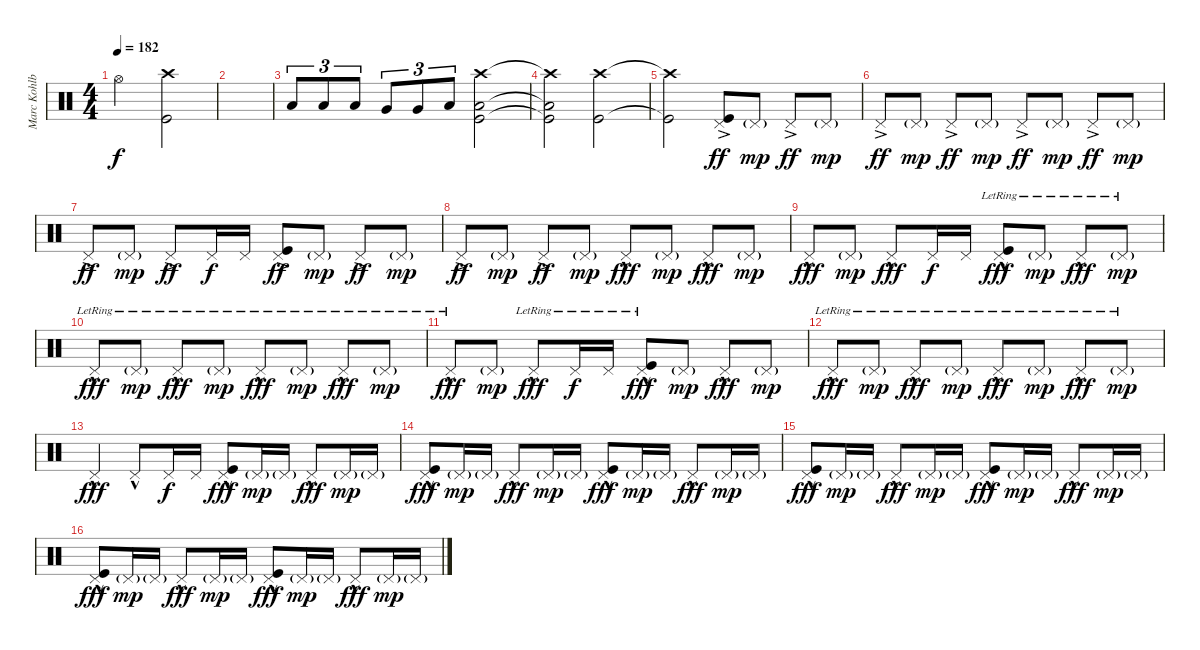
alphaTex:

\track ("Marc Kohlbry" "Marc Kohlb") {instrument percussion}
\staff {score}
\articulation defaults
\ts (4 4)
\tempo 182
\clef neutral
\ks c "Hi-Hat (open)".2{dy f}
("Crash high (hit)" "Kick (hit)").2 |
|
"Low Tom (hit)".8{tu (3 2)} "Low Tom (hit)".8{tu (3 2)} "Low Tom (hit)".8{tu (3 2)} "Very Low Tom (hit)".8{tu (3 2)} "Very Low Tom (hit)".8{tu (3 2)} "Low Floor Tom (hit)".8{tu (3 2)} ("Crash high (hit)" "Low Floor Tom (hit)" "Kick (hit)").2 |
("Crash high (hit)"{t} "Low Floor Tom (hit)"{t} "Kick (hit)"{t}).2 ("Crash high (hit)" "Kick (hit)").2 |
("Crash high (hit)"{t} "Kick (hit)"{t}).2 ("Pedal Hi-Hat (hit)"{ac} "Kick (hit)").8{dy ff} "Pedal Hi-Hat (hit)"{g}.8{dy mp} "Pedal Hi-Hat (hit)"{ac}.8{dy ff} "Pedal Hi-Hat (hit)"{g}.8{dy mp} |
"Pedal Hi-Hat (hit)"{ac}.8{dy ff} "Pedal Hi-Hat (hit)"{g}.8{dy mp} "Pedal Hi-Hat (hit)"{ac}.8{dy ff} "Pedal Hi-Hat (hit)"{g}.8{dy mp} "Pedal Hi-Hat (hit)"{ac}.8{dy ff} "Pedal Hi-Hat (hit)"{g}.8{dy mp} "Pedal Hi-Hat (hit)"{ac}.8{dy ff} "Pedal Hi-Hat (hit)"{g}.8{dy mp} |
"Pedal Hi-Hat (hit)"{ac}.8{dy ff} "Pedal Hi-Hat (hit)"{g}.8{dy mp} "Pedal Hi-Hat (hit)"{ac}.8{dy ff} "Pedal Hi-Hat (hit)".16{dy f} "Pedal Hi-Hat (hit)".16 ("Pedal Hi-Hat (hit)"{ac} "Kick (hit)").8{dy ff} "Pedal Hi-Hat (hit)"{g}.8{dy mp} "Pedal Hi-Hat (hit)"{ac}.8{dy ff} "Pedal Hi-Hat (hit)"{g}.8{dy mp} |
"Pedal Hi-Hat (hit)"{ac}.8{dy ff} "Pedal Hi-Hat (hit)"{g}.8{dy mp} "Pedal Hi-Hat (hit)"{ac}.8{dy ff} "Pedal Hi-Hat (hit)"{g}.8{dy mp} "Pedal Hi-Hat (hit)"{hac}.8{dy fff} "Pedal Hi-Hat (hit)"{g}.8{dy mp} "Pedal Hi-Hat (hit)"{hac}.8{dy fff} "Pedal Hi-Hat (hit)"{g}.8{dy mp} |
"Pedal Hi-Hat (hit)"{hac}.8{dy fff} "Pedal Hi-Hat (hit)"{g}.8{dy mp} "Pedal Hi-Hat (hit)"{hac}.8{dy fff} "Pedal Hi-Hat (hit)".16{dy f} "Pedal Hi-Hat (hit)".16 ("Pedal Hi-Hat (hit)"{hac lr} "Kick (hit)"{lr}).8{dy fff} "Pedal Hi-Hat (hit)"{g lr}.8{dy mp} "Pedal Hi-Hat (hit)"{hac lr}.8{dy fff} "Pedal Hi-Hat (hit)"{g lr}.8{dy mp} |
"Pedal Hi-Hat (hit)"{hac lr}.8{dy fff} "Pedal Hi-Hat (hit)"{g lr}.8{dy mp} "Pedal Hi-Hat (hit)"{hac lr}.8{dy fff} "Pedal Hi-Hat (hit)"{g lr}.8{dy mp} "Pedal Hi-Hat (hit)"{hac lr}.8{dy fff} "Pedal Hi-Hat (hit)"{g lr}.8{dy mp} "Pedal Hi-Hat (hit)"{hac lr}.8{dy fff} "Pedal Hi-Hat (hit)"{g lr}.8{dy mp} |
"Pedal Hi-Hat (hit)"{hac lr}.8{dy fff} "Pedal Hi-Hat (hit)"{g}.8{dy mp} "Pedal Hi-Hat (hit)"{hac lr}.8{dy fff} "Pedal Hi-Hat (hit)"{lr}.16{dy f} "Pedal Hi-Hat (hit)"{lr}.16 ("Pedal Hi-Hat (hit)"{hac lr} "Kick (hit)"{lr}).8{dy fff} "Pedal Hi-Hat (hit)"{g}.8{dy mp} "Pedal Hi-Hat (hit)"{hac}.8{dy fff} "Pedal Hi-Hat (hit)"{g}.8{dy mp} |
"Pedal Hi-Hat (hit)"{hac lr}.8{dy fff} "Pedal Hi-Hat (hit)"{g lr}.8{dy mp} "Pedal Hi-Hat (hit)"{hac lr}.8{dy fff} "Pedal Hi-Hat (hit)"{g lr}.8{dy mp} "Pedal Hi-Hat (hit)"{hac lr}.8{dy fff} "Pedal Hi-Hat (hit)"{g lr}.8{dy mp} "Pedal Hi-Hat (hit)"{hac lr}.8{dy fff} "Pedal Hi-Hat (hit)"{g lr}.8{dy mp} |
"Pedal Hi-Hat (hit)"{hac}.4{dy fff} "Pedal Hi-Hat (hit)"{hac}.8 "Pedal Hi-Hat (hit)".16{dy f} "Pedal Hi-Hat (hit)".16 ("Pedal Hi-Hat (hit)"{hac} "Kick (hit)").8{dy fff} "Pedal Hi-Hat (hit)"{g}.16{dy mp} "Pedal Hi-Hat (hit)"{g}.16 "Pedal Hi-Hat (hit)"{hac}.8{dy fff} "Pedal Hi-Hat (hit)"{g}.16{dy mp} "Pedal Hi-Hat (hit)"{g}.16 |
("Pedal Hi-Hat (hit)"{hac} "Kick (hit)").8{dy fff} "Pedal Hi-Hat (hit)"{g}.16{dy mp} "Pedal Hi-Hat (hit)"{g}.16 "Pedal Hi-Hat (hit)"{hac}.8{dy fff} "Pedal Hi-Hat (hit)"{g}.16{dy mp} "Pedal Hi-Hat (hit)"{g}.16 ("Pedal Hi-Hat (hit)"{hac} "Kick (hit)").8{dy fff} "Pedal Hi-Hat (hit)"{g}.16{dy mp} "Pedal Hi-Hat (hit)"{g}.16 "Pedal Hi-Hat (hit)"{hac}.8{dy fff} "Pedal Hi-Hat (hit)"{g}.16{dy mp} "Pedal Hi-Hat (hit)"{g}.16 |
("Pedal Hi-Hat (hit)"{hac} "Kick (hit)").8{dy fff} "Pedal Hi-Hat (hit)"{g}.16{dy mp} "Pedal Hi-Hat (hit)"{g}.16 "Pedal Hi-Hat (hit)"{hac}.8{dy fff} "Pedal Hi-Hat (hit)"{g}.16{dy mp} "Pedal Hi-Hat (hit)"{g}.16 ("Pedal Hi-Hat (hit)"{hac} "Kick (hit)").8{dy fff} "Pedal Hi-Hat (hit)"{g}.16{dy mp} "Pedal Hi-Hat (hit)"{g}.16 "Pedal Hi-Hat (hit)"{hac}.8{dy fff} "Pedal Hi-Hat (hit)"{g}.16{dy mp} "Pedal Hi-Hat (hit)"{g}.16 |
("Pedal Hi-Hat (hit)"{hac} "Kick (hit)").8{dy fff} "Pedal Hi-Hat (hit)"{g}.16{dy mp} "Pedal Hi-Hat (hit)"{g}.16 "Pedal Hi-Hat (hit)"{hac}.8{dy fff} "Pedal Hi-Hat (hit)"{g}.16{dy mp} "Pedal Hi-Hat (hit)"{g}.16 ("Pedal Hi-Hat (hit)"{hac} "Kick (hit)").8{dy fff} "Pedal Hi-Hat (hit)"{g}.16{dy mp} "Pedal Hi-Hat (hit)"{g}.16 "Pedal Hi-Hat (hit)"{hac}.8{dy fff} "Pedal Hi-Hat (hit)"{g}.16{dy mp} "Pedal Hi-Hat (hit)"{g}.16
